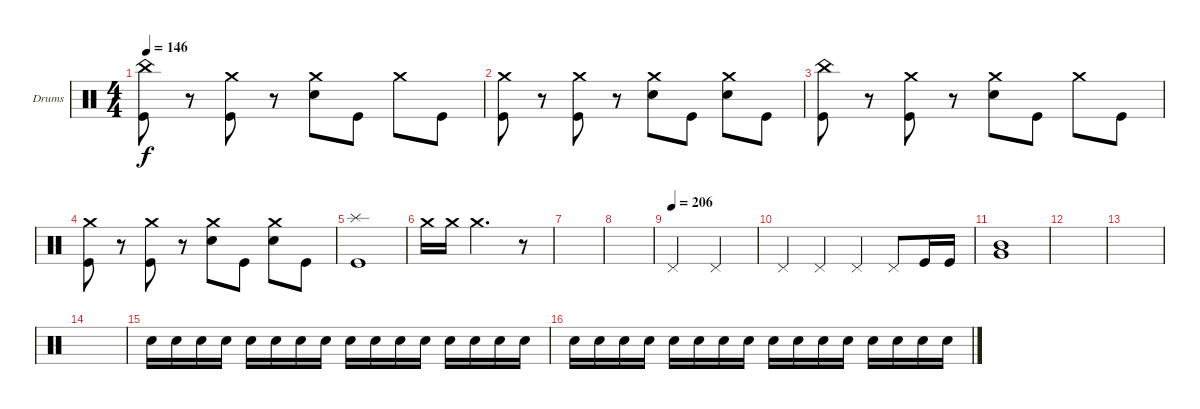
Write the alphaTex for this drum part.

\bracketExtendMode groupsimilarinstruments
\firstSystemTrackNameOrientation horizontal
\otherSystemsTrackNameOrientation horizontal
\track ("Drumkit" "Drums") {instrument percussion}
\staff {score}
\articulation defaults
\ts (4 4)
\tempo 146
\clef neutral
\scale
0.333333
\ks c
("Kick (hit)" "China (hit)").8{dy f} r.8 ("Crash medium (hit)" "Kick (hit)").8 r.8 ("Crash medium (hit)" "Snare (hit) 2").8 "Kick (hit)".8 "Crash medium (hit)".8 "Kick (hit)".8 |
\scale
0.333333 ("Kick (hit)" "Crash medium (hit)").8 r.8 ("Crash medium (hit)" "Kick (hit)").8 r.8 ("Crash medium (hit)" "Snare (hit) 2").8 "Kick (hit)".8 ("Crash medium (hit)" "Snare (hit) 2").8 "Kick (hit)".8 |
\scale
0.333333 ("Kick (hit)" "China (hit)").8 r.8 ("Crash medium (hit)" "Kick (hit)").8 r.8 ("Crash medium (hit)" "Snare (hit) 2").8 "Kick (hit)".8 "Crash medium (hit)".8 "Kick (hit)".8 |
\scale
0.333333 ("Kick (hit)" "Crash medium (hit)").8 r.8 ("Crash medium (hit)" "Kick (hit)").8 r.8 ("Crash medium (hit)" "Snare (hit) 2").8 "Kick (hit)".8 ("Crash medium (hit)" "Snare (hit) 2").8 "Kick (hit)".8 |
\scale
0.333333 ("Kick (hit)" "Splash (hit)").1 |
\scale
0.333333 "Crash medium (hit)".16 "Crash medium (hit)".16 "Crash medium (hit)".2{d} r.8 |
\scale
0.333333 |
\scale
0.333333 |
\tempo (206)
"Pedal Hi-Hat (hit)".2 "Pedal Hi-Hat (hit)".2 |
"Pedal Hi-Hat (hit)".4 "Pedal Hi-Hat (hit)".4 "Pedal Hi-Hat (hit)".4 "Pedal Hi-Hat (hit)".8 "Kick (hit)".16 "Kick (hit)".16 |
\scale
0.333333 ("Very Low Tom (hit)" "Mid Tom (hit)").1 |
\scale
0.333333 |
\scale
0.333333 |
\scale
0.333333 |
\scale
0.333333 "Snare (hit) 2".16 "Snare (hit) 2".16 "Snare (hit) 2".16 "Snare (hit) 2".16 "Snare (hit) 2".16 "Snare (hit) 2".16 "Snare (hit) 2".16 "Snare (hit) 2".16 "Snare (hit) 2".16 "Snare (hit) 2".16 "Snare (hit) 2".16 "Snare (hit) 2".16 "Snare (hit) 2".16 "Snare (hit) 2".16 "Snare (hit) 2".16 "Snare (hit) 2".16 |
\scale
0.333333 "Snare (hit) 2".16 "Snare (hit) 2".16 "Snare (hit) 2".16 "Snare (hit) 2".16 "Snare (hit) 2".16 "Snare (hit) 2".16 "Snare (hit) 2".16 "Snare (hit) 2".16 "Snare (hit) 2".16 "Snare (hit) 2".16 "Snare (hit) 2".16 "Snare (hit) 2".16 "Snare (hit) 2".16 "Snare (hit) 2".16 "Snare (hit) 2".16 "Snare (hit) 2".16
